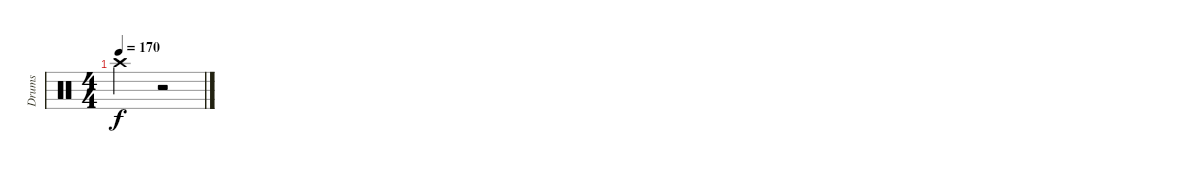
\track ("Drums" "Drums") {instrument percussion}
\staff {score}
\articulation defaults
\ts (4 4)
\tempo 170
\clef neutral
\ks c "Crash high (hit)".2{dy f}
r.2
